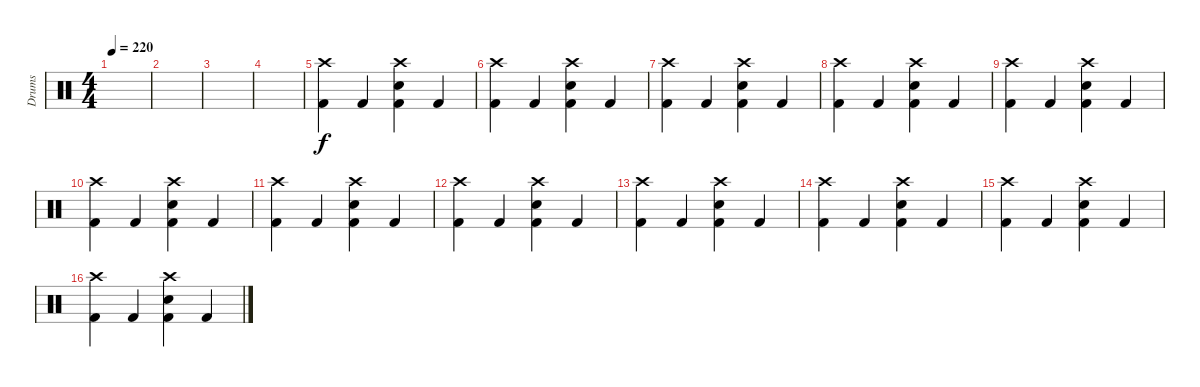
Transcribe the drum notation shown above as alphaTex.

\track ("Drums" "Drums") {instrument percussion}
\staff {score}
\articulation defaults
\ts (4 4)
\tempo 220
\clef neutral
\ks c
|
|
|
|
("Crash high (hit)" "Kick (hit) 2").4 "Kick (hit) 2".4 ("Crash high (hit)" "Snare (hit) 2" "Kick (hit) 2").4 "Kick (hit) 2".4 |
("Crash high (hit)" "Kick (hit) 2").4 "Kick (hit) 2".4 ("Crash high (hit)" "Snare (hit) 2" "Kick (hit) 2").4 "Kick (hit) 2".4 |
("Crash high (hit)" "Kick (hit) 2").4 "Kick (hit) 2".4 ("Crash high (hit)" "Snare (hit) 2" "Kick (hit) 2").4 "Kick (hit) 2".4 |
("Crash high (hit)" "Kick (hit) 2").4 "Kick (hit) 2".4 ("Crash high (hit)" "Snare (hit) 2" "Kick (hit) 2").4 "Kick (hit) 2".4 |
("Crash high (hit)" "Kick (hit) 2").4 "Kick (hit) 2".4 ("Crash high (hit)" "Snare (hit) 2" "Kick (hit) 2").4 "Kick (hit) 2".4 |
("Crash high (hit)" "Kick (hit) 2").4 "Kick (hit) 2".4 ("Crash high (hit)" "Snare (hit) 2" "Kick (hit) 2").4 "Kick (hit) 2".4 |
("Crash high (hit)" "Kick (hit) 2").4 "Kick (hit) 2".4 ("Crash high (hit)" "Snare (hit) 2" "Kick (hit) 2").4 "Kick (hit) 2".4 |
("Crash high (hit)" "Kick (hit) 2").4 "Kick (hit) 2".4 ("Crash high (hit)" "Snare (hit) 2" "Kick (hit) 2").4 "Kick (hit) 2".4 |
("Crash high (hit)" "Kick (hit) 2").4 "Kick (hit) 2".4 ("Crash high (hit)" "Snare (hit) 2" "Kick (hit) 2").4 "Kick (hit) 2".4 |
("Crash high (hit)" "Kick (hit) 2").4 "Kick (hit) 2".4 ("Crash high (hit)" "Snare (hit) 2" "Kick (hit) 2").4 "Kick (hit) 2".4 |
("Crash high (hit)" "Kick (hit) 2").4 "Kick (hit) 2".4 ("Crash high (hit)" "Snare (hit) 2" "Kick (hit) 2").4 "Kick (hit) 2".4 |
("Crash high (hit)" "Kick (hit) 2").4 "Kick (hit) 2".4 ("Crash high (hit)" "Snare (hit) 2" "Kick (hit) 2").4 "Kick (hit) 2".4
